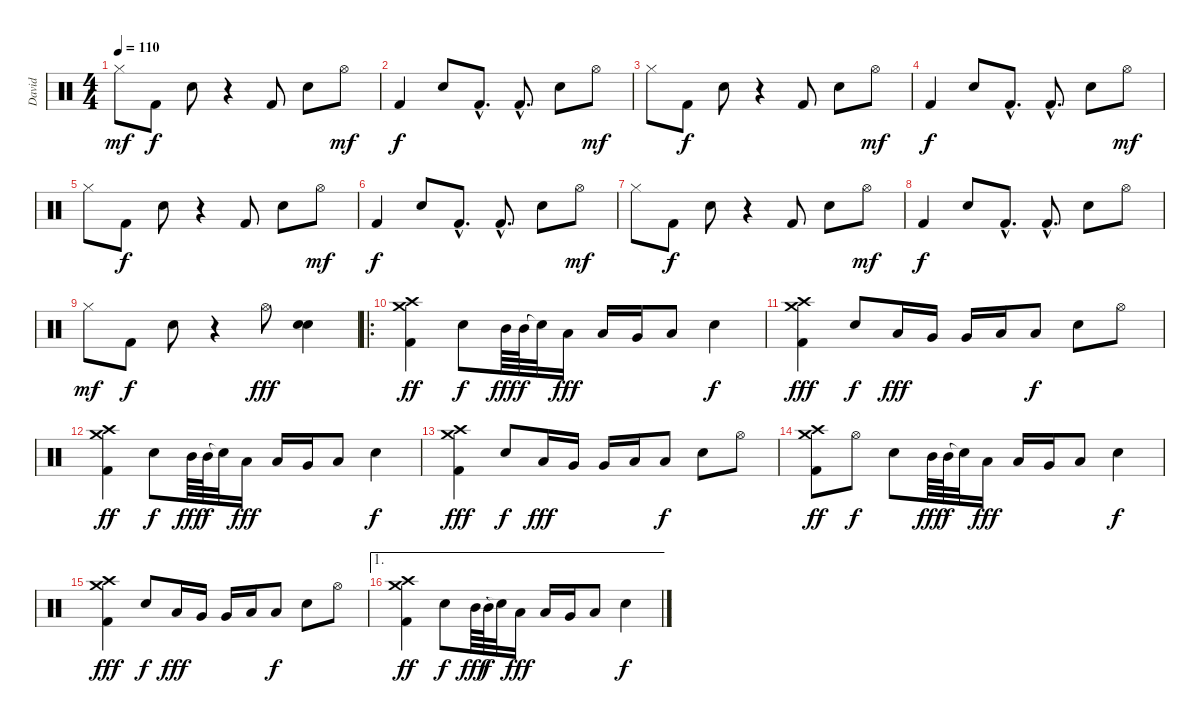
\track ("David" "David") {instrument percussion}
\staff {score}
\articulation defaults
\ts (4 4)
\tempo 110
\clef neutral
\ks c "Hi-Hat (closed)".8{dy mf} "Kick (hit) 2".8{dy f} "Snare (hit) 2".8
r.4 "Kick (hit) 2".8 "Snare (hit) 2".8 "Hi-Hat (open)".8{dy mf} |
"Kick (hit) 2".4{dy f} "Snare (hit) 2".8 "Kick (hit) 2"{hac}.8{d} "Kick (hit) 2"{hac}.8{d} "Snare (hit) 2".8 "Hi-Hat (open)".8{dy mf} |
"Hi-Hat (closed)".8 "Kick (hit) 2".8{dy f} "Snare (hit) 2".8 r.4 "Kick (hit) 2".8 "Snare (hit) 2".8 "Hi-Hat (open)".8{dy mf} |
"Kick (hit) 2".4{dy f} "Snare (hit) 2".8 "Kick (hit) 2"{hac}.8{d} "Kick (hit) 2"{hac}.8{d} "Snare (hit) 2".8 "Hi-Hat (open)".8{dy mf} |
"Hi-Hat (closed)".8 "Kick (hit) 2".8{dy f} "Snare (hit) 2".8 r.4 "Kick (hit) 2".8 "Snare (hit) 2".8 "Hi-Hat (open)".8{dy mf} |
"Kick (hit) 2".4{dy f} "Snare (hit) 2".8 "Kick (hit) 2"{hac}.8{d} "Kick (hit) 2"{hac}.8{d} "Snare (hit) 2".8 "Hi-Hat (open)".8{dy mf} |
"Hi-Hat (closed)".8 "Kick (hit) 2".8{dy f} "Snare (hit) 2".8 r.4 "Kick (hit) 2".8 "Snare (hit) 2".8 "Hi-Hat (open)".8{dy mf} |
"Kick (hit) 2".4{dy f} "Snare (hit) 2".8 "Kick (hit) 2"{hac}.8{d} "Kick (hit) 2"{hac}.8{d} "Snare (hit) 2".8 "Hi-Hat (open)".8 |
"Hi-Hat (closed)".8{dy mf} "Kick (hit) 2".8{dy f} "Snare (hit) 2".8 r.4 "Hi-Hat (open)".8{dy fff} ("Snare (hit) 2" "Snare (hit) 2").4 |
\ro
("Crash medium (hit)" "Crash high (hit)" "Kick (hit) 2").4{dy ff} "Snare (hit) 2".8{dy f} "Mid Tom (hit)".64{dy fff} "Mid Tom (hit)".64{dy f} "Snare (hit)"{t}.32 "Low Tom (hit)".16{dy fff} "Low Tom (hit)".16 "Very Low Tom (hit)".16 "Low Floor Tom (hit)".8 "Snare (hit) 2".4{dy f} |
("Crash medium (hit)" "Crash high (hit)" "Kick (hit) 2").4{dy fff} "Snare (hit) 2".8{dy f} "Low Tom (hit)".16{dy fff} "Very Low Tom (hit)".16 "Very Low Tom (hit)".16 "Low Floor Tom (hit)".16 "Low Floor Tom (hit)".8{dy f} "Snare (hit) 2".8 "Hi-Hat (open)".8 |
("Crash medium (hit)" "Crash high (hit)" "Kick (hit) 2").4{dy ff} "Snare (hit) 2".8{dy f} "Mid Tom (hit)".64{dy fff} "Mid Tom (hit)".64{dy f} "Snare (hit)"{t}.32 "Low Tom (hit)".16{dy fff} "Low Tom (hit)".16 "Very Low Tom (hit)".16 "Low Floor Tom (hit)".8 "Snare (hit) 2".4{dy f} |
("Crash medium (hit)" "Crash high (hit)" "Kick (hit) 2").4{dy fff} "Snare (hit) 2".8{dy f} "Low Tom (hit)".16{dy fff} "Very Low Tom (hit)".16 "Very Low Tom (hit)".16 "Low Floor Tom (hit)".16 "Low Floor Tom (hit)".8{dy f} "Snare (hit) 2".8 "Hi-Hat (open)".8 |
("Crash medium (hit)" "Crash high (hit)" "Kick (hit) 2").8{dy ff} "Hi-Hat (open)".8{dy f} "Snare (hit) 2".8 "Mid Tom (hit)".64{dy fff} "Mid Tom (hit)".64{dy f} "Snare (hit)"{t}.32 "Low Tom (hit)".16{dy fff} "Low Tom (hit)".16 "Very Low Tom (hit)".16 "Low Floor Tom (hit)".8 "Snare (hit) 2".4{dy f} |
("Crash medium (hit)" "Crash high (hit)" "Kick (hit) 2").4{dy fff} "Snare (hit) 2".8{dy f} "Low Tom (hit)".16{dy fff} "Very Low Tom (hit)".16 "Very Low Tom (hit)".16 "Low Floor Tom (hit)".16 "Low Floor Tom (hit)".8{dy f} "Snare (hit) 2".8 "Hi-Hat (open)".8 |
\ae 1
("Crash medium (hit)" "Crash high (hit)" "Kick (hit) 2").4{dy ff} "Snare (hit) 2".8{dy f} "Mid Tom (hit)".64{dy fff} "Mid Tom (hit)".64{dy f} "Snare (hit)"{t}.32 "Low Tom (hit)".16{dy fff} "Low Tom (hit)".16 "Very Low Tom (hit)".16 "Low Floor Tom (hit)".8 "Snare (hit) 2".4{dy f}
